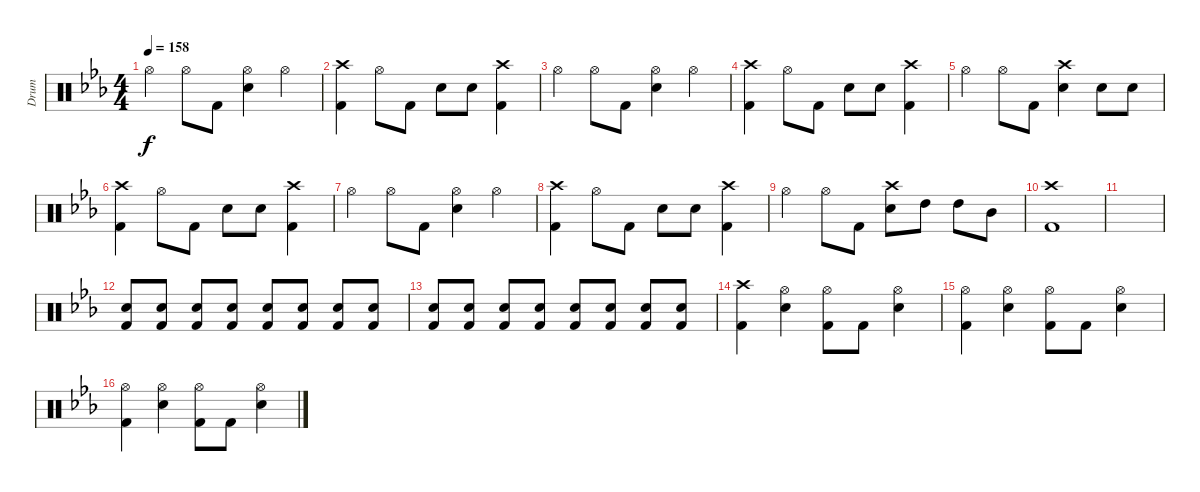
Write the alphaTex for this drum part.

\track ("Drum" "Drum") {instrument percussion}
\staff {score}
\articulation defaults
\ts (4 4)
\tempo 158
\clef neutral
\ks eb "Hi-Hat (open)".4{dy f} "Hi-Hat (open)".8 "Kick (hit) 2".8
("Hi-Hat (open)" "Snare (hit) 2").4 "Hi-Hat (open)".4 |
("Crash high (hit)" "Kick (hit) 2").4 "Hi-Hat (open)".8 "Kick (hit) 2".8 "Snare (hit) 2".8 "Snare (hit) 2".8 ("Crash high (hit)" "Kick (hit) 2").4 |
"Hi-Hat (open)".4 "Hi-Hat (open)".8 "Kick (hit) 2".8 ("Hi-Hat (open)" "Snare (hit) 2").4 "Hi-Hat (open)".4 |
("Crash high (hit)" "Kick (hit) 2").4 "Hi-Hat (open)".8 "Kick (hit) 2".8 "Snare (hit) 2".8 "Snare (hit) 2".8 ("Crash high (hit)" "Kick (hit) 2").4 |
"Hi-Hat (open)".4 "Hi-Hat (open)".8 "Kick (hit) 2".8 ("Crash high (hit)" "Snare (hit) 2").4 "Snare (hit) 2".8 "Snare (hit) 2".8 |
("Crash high (hit)" "Kick (hit) 2").4 "Hi-Hat (open)".8 "Kick (hit) 2".8 "Snare (hit) 2".8 "Snare (hit) 2".8 ("Crash high (hit)" "Kick (hit) 2").4 |
"Hi-Hat (open)".4 "Hi-Hat (open)".8 "Kick (hit) 2".8 ("Hi-Hat (open)" "Snare (hit) 2").4 "Hi-Hat (open)".4 |
("Crash high (hit)" "Kick (hit) 2").4 "Hi-Hat (open)".8 "Kick (hit) 2".8 "Snare (hit) 2".8 "Snare (hit) 2".8 ("Crash high (hit)" "Kick (hit) 2").4 |
"Hi-Hat (open)".4 "Hi-Hat (open)".8 "Kick (hit) 2".8 ("Crash high (hit)" "Snare (hit) 2").8 "High Tom (hit)".8 "High Tom (hit)".8 "Mid Tom (hit)".8 |
("Crash high (hit)" "Kick (hit) 2").1 |
|
("Snare (hit) 2" "Kick (hit) 2").8 ("Snare (hit) 2" "Kick (hit) 2").8 ("Snare (hit) 2" "Kick (hit) 2").8 ("Snare (hit) 2" "Kick (hit) 2").8 ("Snare (hit) 2" "Kick (hit) 2").8 ("Snare (hit) 2" "Kick (hit) 2").8 ("Snare (hit) 2" "Kick (hit) 2").8 ("Snare (hit) 2" "Kick (hit) 2").8 |
("Snare (hit) 2" "Kick (hit) 2").8 ("Snare (hit) 2" "Kick (hit) 2").8 ("Snare (hit) 2" "Kick (hit) 2").8 ("Snare (hit) 2" "Kick (hit) 2").8 ("Snare (hit) 2" "Kick (hit) 2").8 ("Snare (hit) 2" "Kick (hit) 2").8 ("Snare (hit) 2" "Kick (hit) 2").8 ("Snare (hit) 2" "Kick (hit) 2").8 |
("Crash high (hit)" "Kick (hit) 2").4 ("Hi-Hat (open)" "Snare (hit) 2").4 ("Hi-Hat (open)" "Kick (hit) 2").8 "Kick (hit) 2".8 ("Hi-Hat (open)" "Snare (hit) 2").4 |
("Hi-Hat (open)" "Kick (hit) 2").4 ("Hi-Hat (open)" "Snare (hit) 2").4 ("Hi-Hat (open)" "Kick (hit) 2").8 "Kick (hit) 2".8 ("Hi-Hat (open)" "Snare (hit) 2").4 |
("Hi-Hat (open)" "Kick (hit) 2").4 ("Hi-Hat (open)" "Snare (hit) 2").4 ("Hi-Hat (open)" "Kick (hit) 2").8 "Kick (hit) 2".8 ("Hi-Hat (open)" "Snare (hit) 2").4
